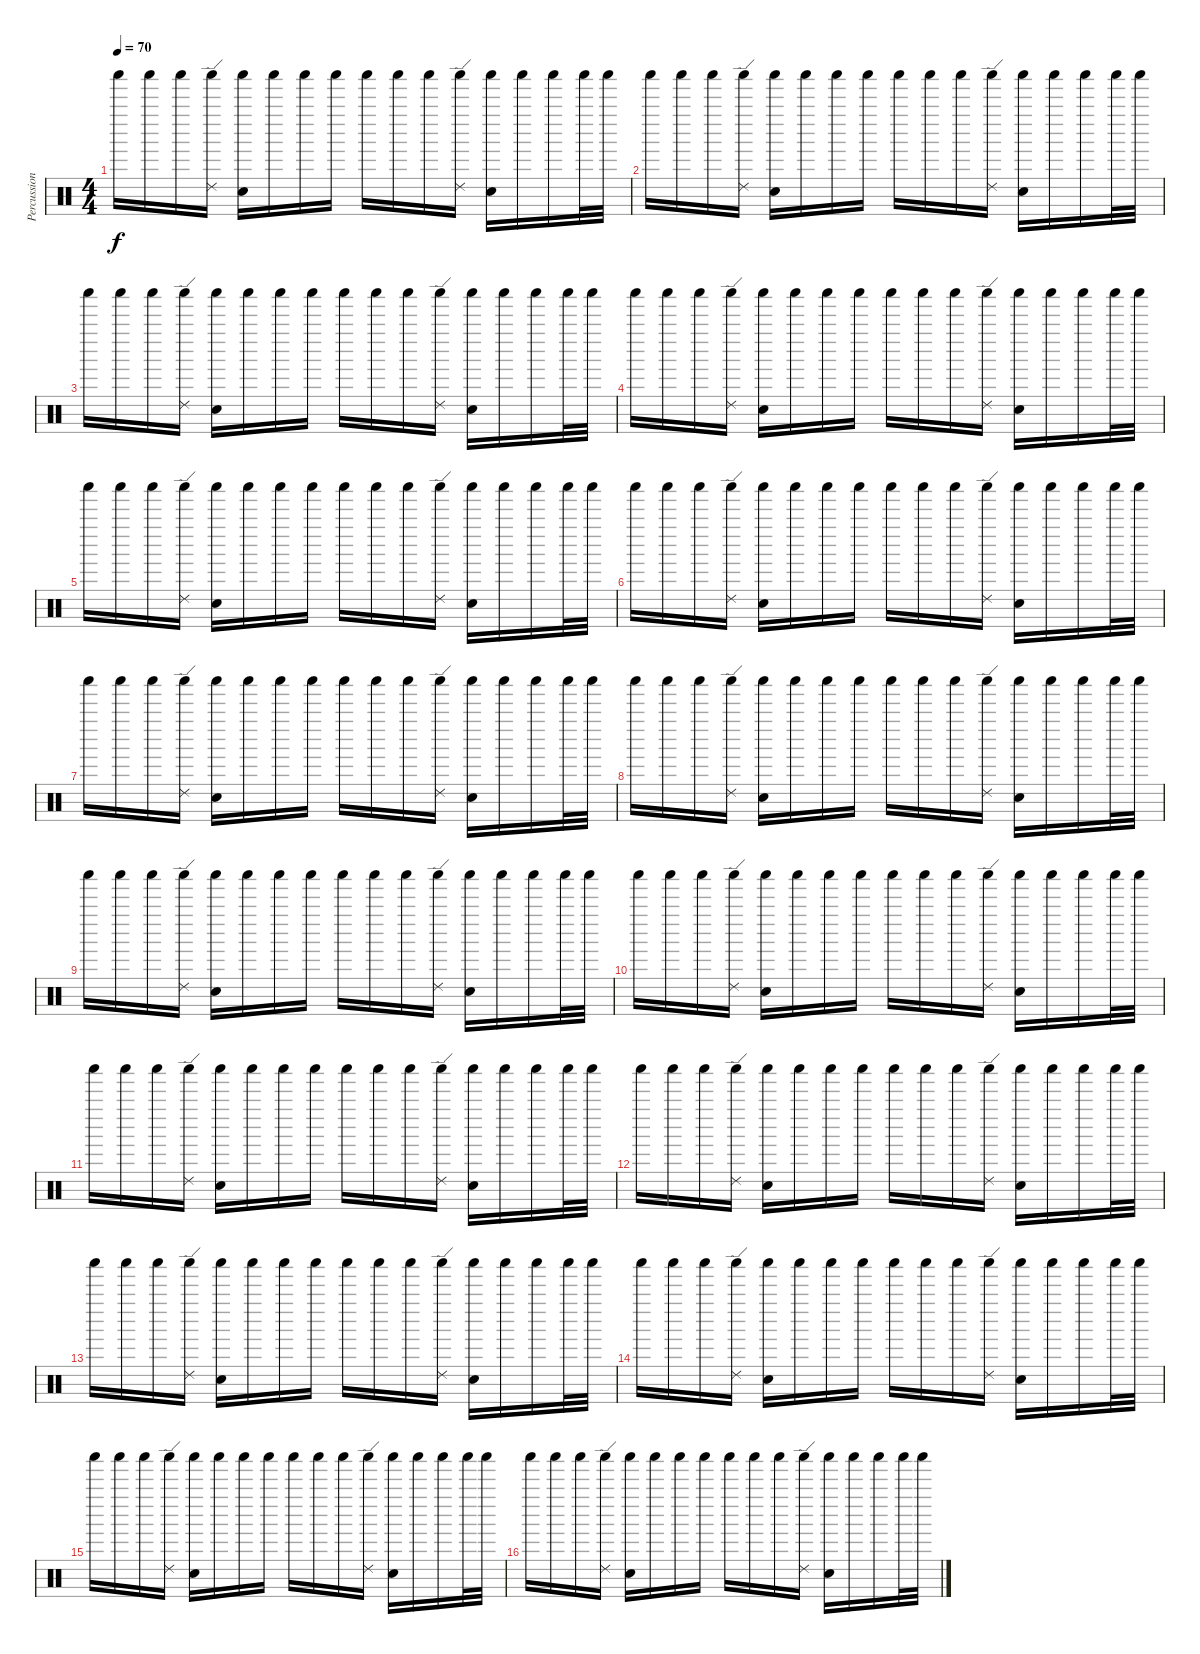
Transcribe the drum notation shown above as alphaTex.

\track ("Percussion" "Percussion") {instrument percussion}
\staff {score}
\articulation defaults
\ts (4 4)
\tempo 70
\clef neutral
\ks c "Shaker (hit)".16{dy f} "Shaker (hit)".16 "Shaker (hit)".16
("Shaker (hit)" "Ride (edge) 2").16 ("Shaker (hit)" "Hand Clap (hit)").16 "Shaker (hit)".16 "Shaker (hit)".16 "Shaker (hit)".16 "Shaker (hit)".16 "Shaker (hit)".16 "Shaker (hit)".16 ("Shaker (hit)" "Ride (edge) 2").16 ("Shaker (hit)" "Hand Clap (hit)").16 "Shaker (hit)".16 "Shaker (hit)".16 "Shaker (hit)".32 "Shaker (hit)".32 |
"Shaker (hit)".16 "Shaker (hit)".16 "Shaker (hit)".16 ("Shaker (hit)" "Ride (edge) 2").16 ("Shaker (hit)" "Hand Clap (hit)").16 "Shaker (hit)".16 "Shaker (hit)".16 "Shaker (hit)".16 "Shaker (hit)".16 "Shaker (hit)".16 "Shaker (hit)".16 ("Shaker (hit)" "Ride (edge) 2").16 ("Shaker (hit)" "Hand Clap (hit)").16 "Shaker (hit)".16 "Shaker (hit)".16 "Shaker (hit)".32 "Shaker (hit)".32 |
"Shaker (hit)".16 "Shaker (hit)".16 "Shaker (hit)".16 ("Shaker (hit)" "Ride (edge) 2").16 ("Shaker (hit)" "Hand Clap (hit)").16 "Shaker (hit)".16 "Shaker (hit)".16 "Shaker (hit)".16 "Shaker (hit)".16 "Shaker (hit)".16 "Shaker (hit)".16 ("Shaker (hit)" "Ride (edge) 2").16 ("Shaker (hit)" "Hand Clap (hit)").16 "Shaker (hit)".16 "Shaker (hit)".16 "Shaker (hit)".32 "Shaker (hit)".32 |
"Shaker (hit)".16 "Shaker (hit)".16 "Shaker (hit)".16 ("Shaker (hit)" "Ride (edge) 2").16 ("Shaker (hit)" "Hand Clap (hit)").16 "Shaker (hit)".16 "Shaker (hit)".16 "Shaker (hit)".16 "Shaker (hit)".16 "Shaker (hit)".16 "Shaker (hit)".16 ("Shaker (hit)" "Ride (edge) 2").16 ("Shaker (hit)" "Hand Clap (hit)").16 "Shaker (hit)".16 "Shaker (hit)".16 "Shaker (hit)".32 "Shaker (hit)".32 |
"Shaker (hit)".16 "Shaker (hit)".16 "Shaker (hit)".16 ("Shaker (hit)" "Ride (edge) 2").16 ("Shaker (hit)" "Hand Clap (hit)").16 "Shaker (hit)".16 "Shaker (hit)".16 "Shaker (hit)".16 "Shaker (hit)".16 "Shaker (hit)".16 "Shaker (hit)".16 ("Shaker (hit)" "Ride (edge) 2").16 ("Shaker (hit)" "Hand Clap (hit)").16 "Shaker (hit)".16 "Shaker (hit)".16 "Shaker (hit)".32 "Shaker (hit)".32 |
"Shaker (hit)".16 "Shaker (hit)".16 "Shaker (hit)".16 ("Shaker (hit)" "Ride (edge) 2").16 ("Shaker (hit)" "Hand Clap (hit)").16 "Shaker (hit)".16 "Shaker (hit)".16 "Shaker (hit)".16 "Shaker (hit)".16 "Shaker (hit)".16 "Shaker (hit)".16 ("Shaker (hit)" "Ride (edge) 2").16 ("Shaker (hit)" "Hand Clap (hit)").16 "Shaker (hit)".16 "Shaker (hit)".16 "Shaker (hit)".32 "Shaker (hit)".32 |
"Shaker (hit)".16 "Shaker (hit)".16 "Shaker (hit)".16 ("Shaker (hit)" "Ride (edge) 2").16 ("Shaker (hit)" "Hand Clap (hit)").16 "Shaker (hit)".16 "Shaker (hit)".16 "Shaker (hit)".16 "Shaker (hit)".16 "Shaker (hit)".16 "Shaker (hit)".16 ("Shaker (hit)" "Ride (edge) 2").16 ("Shaker (hit)" "Hand Clap (hit)").16 "Shaker (hit)".16 "Shaker (hit)".16 "Shaker (hit)".32 "Shaker (hit)".32 |
"Shaker (hit)".16 "Shaker (hit)".16 "Shaker (hit)".16 ("Shaker (hit)" "Ride (edge) 2").16 ("Shaker (hit)" "Hand Clap (hit)").16 "Shaker (hit)".16 "Shaker (hit)".16 "Shaker (hit)".16 "Shaker (hit)".16 "Shaker (hit)".16 "Shaker (hit)".16 ("Shaker (hit)" "Ride (edge) 2").16 ("Shaker (hit)" "Hand Clap (hit)").16 "Shaker (hit)".16 "Shaker (hit)".16 "Shaker (hit)".32 "Shaker (hit)".32 |
"Shaker (hit)".16 "Shaker (hit)".16 "Shaker (hit)".16 ("Shaker (hit)" "Ride (edge) 2").16 ("Shaker (hit)" "Hand Clap (hit)").16 "Shaker (hit)".16 "Shaker (hit)".16 "Shaker (hit)".16 "Shaker (hit)".16 "Shaker (hit)".16 "Shaker (hit)".16 ("Shaker (hit)" "Ride (edge) 2").16 ("Shaker (hit)" "Hand Clap (hit)").16 "Shaker (hit)".16 "Shaker (hit)".16 "Shaker (hit)".32 "Shaker (hit)".32 |
"Shaker (hit)".16 "Shaker (hit)".16 "Shaker (hit)".16 ("Shaker (hit)" "Ride (edge) 2").16 ("Shaker (hit)" "Hand Clap (hit)").16 "Shaker (hit)".16 "Shaker (hit)".16 "Shaker (hit)".16 "Shaker (hit)".16 "Shaker (hit)".16 "Shaker (hit)".16 ("Shaker (hit)" "Ride (edge) 2").16 ("Shaker (hit)" "Hand Clap (hit)").16 "Shaker (hit)".16 "Shaker (hit)".16 "Shaker (hit)".32 "Shaker (hit)".32 |
"Shaker (hit)".16 "Shaker (hit)".16 "Shaker (hit)".16 ("Shaker (hit)" "Ride (edge) 2").16 ("Shaker (hit)" "Hand Clap (hit)").16 "Shaker (hit)".16 "Shaker (hit)".16 "Shaker (hit)".16 "Shaker (hit)".16 "Shaker (hit)".16 "Shaker (hit)".16 ("Shaker (hit)" "Ride (edge) 2").16 ("Shaker (hit)" "Hand Clap (hit)").16 "Shaker (hit)".16 "Shaker (hit)".16 "Shaker (hit)".32 "Shaker (hit)".32 |
"Shaker (hit)".16 "Shaker (hit)".16 "Shaker (hit)".16 ("Shaker (hit)" "Ride (edge) 2").16 ("Shaker (hit)" "Hand Clap (hit)").16 "Shaker (hit)".16 "Shaker (hit)".16 "Shaker (hit)".16 "Shaker (hit)".16 "Shaker (hit)".16 "Shaker (hit)".16 ("Shaker (hit)" "Ride (edge) 2").16 ("Shaker (hit)" "Hand Clap (hit)").16 "Shaker (hit)".16 "Shaker (hit)".16 "Shaker (hit)".32 "Shaker (hit)".32 |
"Shaker (hit)".16 "Shaker (hit)".16 "Shaker (hit)".16 ("Shaker (hit)" "Ride (edge) 2").16 ("Shaker (hit)" "Hand Clap (hit)").16 "Shaker (hit)".16 "Shaker (hit)".16 "Shaker (hit)".16 "Shaker (hit)".16 "Shaker (hit)".16 "Shaker (hit)".16 ("Shaker (hit)" "Ride (edge) 2").16 ("Shaker (hit)" "Hand Clap (hit)").16 "Shaker (hit)".16 "Shaker (hit)".16 "Shaker (hit)".32 "Shaker (hit)".32 |
"Shaker (hit)".16 "Shaker (hit)".16 "Shaker (hit)".16 ("Shaker (hit)" "Ride (edge) 2").16 ("Shaker (hit)" "Hand Clap (hit)").16 "Shaker (hit)".16 "Shaker (hit)".16 "Shaker (hit)".16 "Shaker (hit)".16 "Shaker (hit)".16 "Shaker (hit)".16 ("Shaker (hit)" "Ride (edge) 2").16 ("Shaker (hit)" "Hand Clap (hit)").16 "Shaker (hit)".16 "Shaker (hit)".16 "Shaker (hit)".32 "Shaker (hit)".32 |
"Shaker (hit)".16 "Shaker (hit)".16 "Shaker (hit)".16 ("Shaker (hit)" "Ride (edge) 2").16 ("Shaker (hit)" "Hand Clap (hit)").16 "Shaker (hit)".16 "Shaker (hit)".16 "Shaker (hit)".16 "Shaker (hit)".16 "Shaker (hit)".16 "Shaker (hit)".16 ("Shaker (hit)" "Ride (edge) 2").16 ("Shaker (hit)" "Hand Clap (hit)").16 "Shaker (hit)".16 "Shaker (hit)".16 "Shaker (hit)".32 "Shaker (hit)".32 |
"Shaker (hit)".16 "Shaker (hit)".16 "Shaker (hit)".16 ("Shaker (hit)" "Ride (edge) 2").16 ("Shaker (hit)" "Hand Clap (hit)").16 "Shaker (hit)".16 "Shaker (hit)".16 "Shaker (hit)".16 "Shaker (hit)".16 "Shaker (hit)".16 "Shaker (hit)".16 ("Shaker (hit)" "Ride (edge) 2").16 ("Shaker (hit)" "Hand Clap (hit)").16 "Shaker (hit)".16 "Shaker (hit)".16 "Shaker (hit)".32 "Shaker (hit)".32
